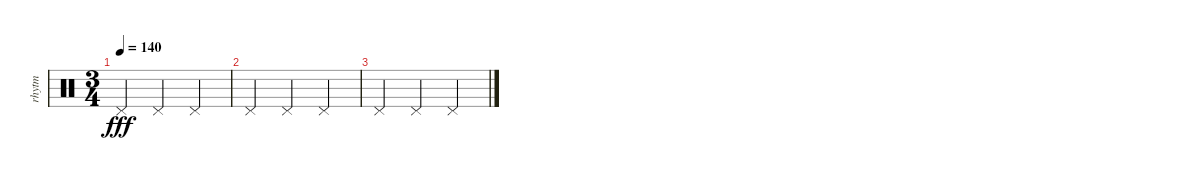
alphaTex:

\track ("rhytm" "rhytm") {instrument percussion}
\staff {score}
\articulation defaults
\ts (3 4)
\tempo 140
\clef neutral
\ks c "Pedal Hi-Hat (hit)".4{dy fff} "Pedal Hi-Hat (hit)".4 "Pedal Hi-Hat (hit)".4
|
"Pedal Hi-Hat (hit)".4 "Pedal Hi-Hat (hit)".4 "Pedal Hi-Hat (hit)".4 |
"Pedal Hi-Hat (hit)".4 "Pedal Hi-Hat (hit)".4 "Pedal Hi-Hat (hit)".4
